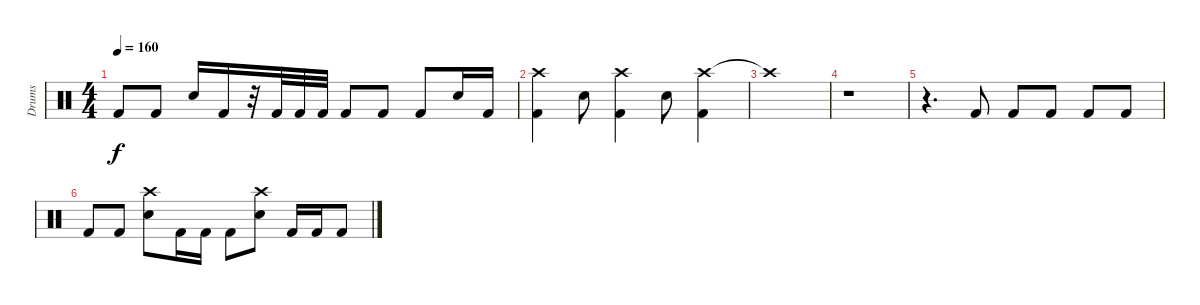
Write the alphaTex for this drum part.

\track ("Drums" "Drums") {instrument percussion}
\staff {score}
\articulation defaults
\ts (4 4)
\tempo 160
\clef neutral
\ks c "Kick (hit) 2".8{dy f} "Kick (hit) 2".8 "Snare (hit) 2".16 "Kick (hit) 2".16
r.32 "Kick (hit) 2".32 "Kick (hit) 2".32 "Kick (hit) 2".32 "Kick (hit) 2".8 "Kick (hit) 2".8 "Kick (hit) 2".8 "Snare (hit) 2".16 "Kick (hit) 2".16 |
("Crash high (hit)" "Kick (hit) 2").4 "Snare (hit) 2".8 ("Crash high (hit)" "Kick (hit) 2").4 "Snare (hit) 2".8 ("Crash high (hit)" "Kick (hit) 2").4 |
"Crash high (hit)"{t}.1 |
r.1 |
r.4{d} "Kick (hit) 2".8 "Kick (hit) 2".8 "Kick (hit) 2".8 "Kick (hit) 2".8 "Kick (hit) 2".8 |
"Kick (hit) 2".8 "Kick (hit) 2".8 ("Crash high (hit)" "Snare (hit) 2").8 "Kick (hit) 2".16 "Kick (hit) 2".16 "Kick (hit) 2".8 ("Crash high (hit)" "Snare (hit) 2").8 "Kick (hit) 2".16 "Kick (hit) 2".16 "Kick (hit) 2".8
